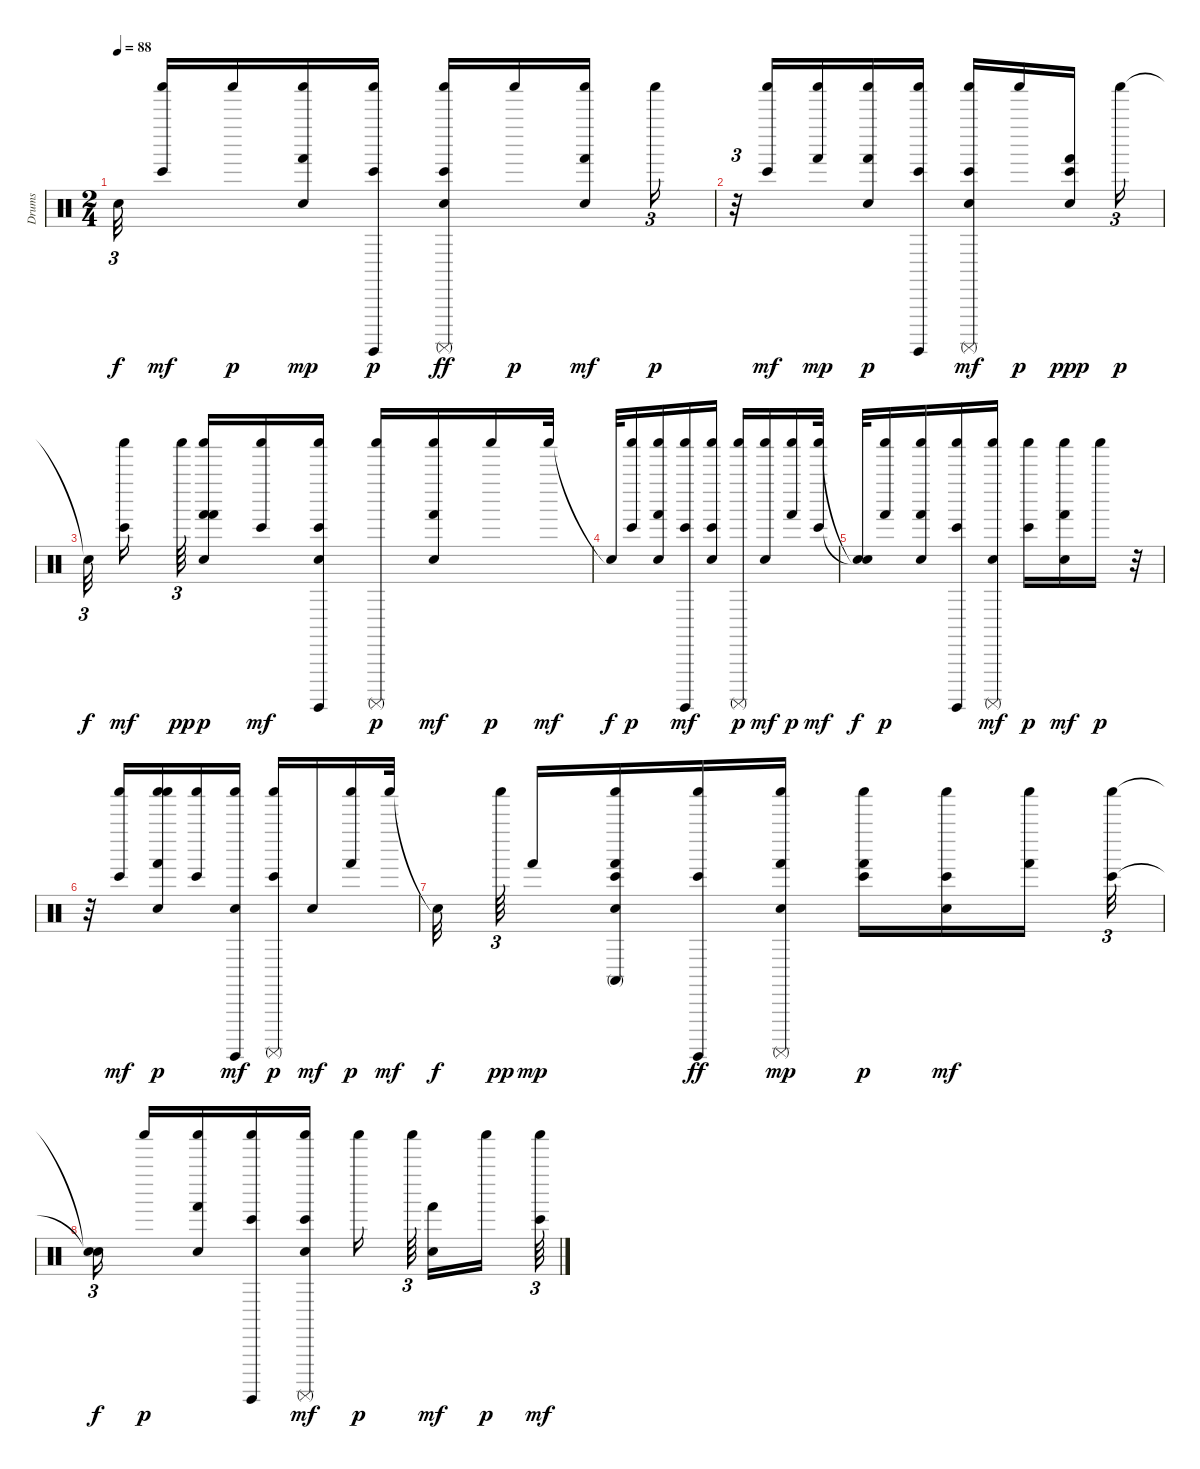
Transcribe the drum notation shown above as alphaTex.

\track ("Drums" "Drums") {instrument percussion}
\staff {score}
\articulation defaults
\ts (2 4)
\tempo 88
\clef neutral
\ks c "Snare (hit)"{t}.32{tu (3 2) dy f}
("Shaker (hit)" "Bongo High (hit)").16{dy mf} "Shaker (hit)".16{dy p} ("Shaker (hit)" "Hand (hit)" "Hand Clap (hit)").16{dy mp} ("Bongo High (hit)" "Shaker (hit)" "Surdo (hit)").16{dy p} ("Shaker (hit)" "Bongo High (hit)" "Hand Clap (hit)" "Surdo (mute)").16{dy ff} "Shaker (hit)".16{dy p} ("Shaker (hit)" "Hand Clap (hit)" "Hand (hit)").16{dy mf} "Shaker (hit)".16{tu (3 2) dy p} |
r.32{tu (3 2)} ("Bongo High (hit)" "Shaker (hit)").16{dy mf} ("Hand (hit)" "Shaker (hit)").16{dy mp} ("Hand (hit)" "Hand Clap (hit)" "Shaker (hit)").16{dy p} ("Shaker (hit)" "Surdo (hit)" "Bongo High (hit)").16 ("Shaker (hit)" "Hand Clap (hit)" "Bongo High (hit)" "Surdo (mute)").16{dy mf} "Shaker (hit)".16{dy p} ("Hand Clap (hit)" "Hand (hit)" "Bongo High (hit)").16{dy ppp} "Shaker (hit)".16{tu (3 2) dy p} |
"Snare (hit)"{t}.32{tu (3 2) dy f} ("Shaker (hit)" "Bongo High (hit)").16{dy mf} "Shaker (hit)".64{tu (3 2) dy pp} ("Hand (hit)" "Shaker (hit)" "Hand Clap (hit)" "Hand (hit)").16{dy p} ("Shaker (hit)" "Bongo High (hit)").16{dy mf} ("Surdo (hit)" "Hand Clap (hit)" "Bongo High (hit)" "Shaker (hit)").16 ("Surdo (mute)" "Shaker (hit)").16{dy p} ("Shaker (hit)" "Hand Clap (hit)" "Hand (hit)").16{dy mf} "Shaker (hit)".16{dy p} "Shaker (hit)".32{dy mf} |
"Snare (hit)"{t}.32{dy f} ("Bongo High (hit)" "Shaker (hit)").16{dy p} ("Hand Clap (hit)" "Shaker (hit)" "Hand (hit)").16 ("Shaker (hit)" "Surdo (hit)" "Bongo High (hit)").16{dy mf} ("Hand Clap (hit)" "Shaker (hit)" "Bongo High (hit)").16 ("Surdo (mute)" "Shaker (hit)").16{dy p} ("Shaker (hit)" "Hand Clap (hit)").16{dy mf} ("Hand (hit)" "Shaker (hit)").16{dy p} ("Bongo High (hit)" "Shaker (hit)").32{dy mf} |
("Snare (hit)"{t} "Snare (hit)"{t}).32{dy f} ("Shaker (hit)" "Hand (hit)").16{dy p} ("Shaker (hit)" "Hand (hit)" "Hand Clap (hit)").16 ("Surdo (hit)" "Bongo High (hit)" "Shaker (hit)").16 ("Hand Clap (hit)" "Shaker (hit)" "Surdo (mute)").16{dy mf} ("Bongo High (hit)" "Shaker (hit)").16{dy p} ("Hand Clap (hit)" "Shaker (hit)" "Hand (hit)").16{dy mf} "Shaker (hit)".16{dy p} r.32 |
r.32 ("Shaker (hit)" "Bongo High (hit)").16{dy mf} ("Shaker (hit)" "Hand Clap (hit)" "Hand (hit)" "Shaker (hit)").16{dy p} ("Shaker (hit)" "Bongo High (hit)").16 ("Surdo (hit)" "Hand Clap (hit)" "Shaker (hit)").16{dy mf} ("Surdo (mute)" "Bongo High (hit)" "Shaker (hit)").16{dy p} "Hand Clap (hit)".16{dy mf} ("Hand (hit)" "Shaker (hit)").16{dy p} "Shaker (hit)".32{dy mf} |
"Snare (hit)"{t}.32{dy f} "Shaker (hit)".64{tu (3 2) dy pp} "Hand (hit)".16{dy mp} ("Bongo High (hit)" "Conga high (mute)" "Shaker (hit)" "Hand (hit)" "Hand Clap (hit)").16 ("Shaker (hit)" "Bongo High (hit)" "Surdo (hit)").16{dy ff} ("Hand Clap (hit)" "Shaker (hit)" "Surdo (mute)" "Hand (hit)").16{dy mp} ("Bongo High (hit)" "Hand (hit)" "Shaker (hit)").16{dy p} ("Shaker (hit)" "Hand Clap (hit)" "Bongo High (hit)").16{dy mf} ("Shaker (hit)" "Hand (hit)").16 ("Shaker (hit)" "Bongo High (hit)").32{tu (3 2)} |
("Snare (hit)"{t} "Snare (hit)"{t}).16{tu (3 2) dy f} "Shaker (hit)".16{dy p} ("Shaker (hit)" "Hand (hit)" "Hand Clap (hit)").16 ("Bongo High (hit)" "Shaker (hit)" "Surdo (hit)").16 ("Shaker (hit)" "Bongo High (hit)" "Hand Clap (hit)" "Surdo (mute)").16{dy mf} "Shaker (hit)".16{dy p} "Shaker (hit)".64{tu (3 2)} ("Hand (hit)" "Hand Clap (hit)").16{dy mf} "Shaker (hit)".16{dy p} ("Shaker (hit)" "Bongo High (hit)").64{tu (3 2) dy mf}
